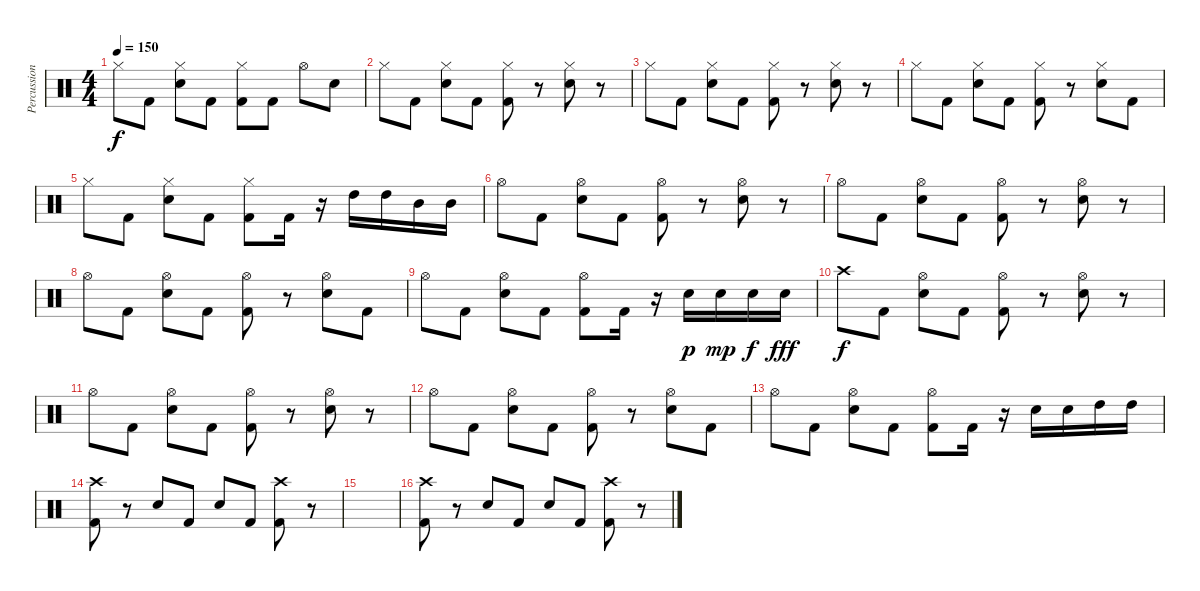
\track ("Percussion" "Percussion") {instrument percussion}
\staff {score}
\articulation defaults
\ts (4 4)
\tempo 150
\clef neutral
\ks c "Hi-Hat (closed)".8{dy f} "Kick (hit) 2".8
("Hi-Hat (closed)" "Electric Snare (hit)").8 "Kick (hit) 2".8 ("Hi-Hat (closed)" "Kick (hit) 2").8 "Kick (hit) 2".8 "Hi-Hat (open)".8 "Electric Snare (hit)".8 |
"Hi-Hat (closed)".8 "Kick (hit) 2".8 ("Hi-Hat (closed)" "Electric Snare (hit)").8 "Kick (hit) 2".8 ("Hi-Hat (closed)" "Kick (hit) 2").8 r.8 ("Hi-Hat (closed)" "Electric Snare (hit)").8 r.8 |
"Hi-Hat (closed)".8 "Kick (hit) 2".8 ("Hi-Hat (closed)" "Electric Snare (hit)").8 "Kick (hit) 2".8 ("Hi-Hat (closed)" "Kick (hit) 2").8 r.8 ("Hi-Hat (closed)" "Electric Snare (hit)").8 r.8 |
"Hi-Hat (closed)".8 "Kick (hit) 2".8 ("Hi-Hat (closed)" "Electric Snare (hit)").8 "Kick (hit) 2".8 ("Hi-Hat (closed)" "Kick (hit) 2").8 r.8 ("Hi-Hat (closed)" "Electric Snare (hit)").8 "Kick (hit) 2".8 |
"Hi-Hat (closed)".8 "Kick (hit) 2".8 ("Hi-Hat (closed)" "Electric Snare (hit)").8 "Kick (hit) 2".8 ("Hi-Hat (closed)" "Kick (hit) 2").8 "Kick (hit) 2".16 r.16 "High Tom (hit)".16 "High Tom (hit)".16 "Mid Tom (hit)".16 "Mid Tom (hit)".16 |
"Hi-Hat (open)".8 "Kick (hit) 2".8 ("Hi-Hat (open)" "Electric Snare (hit)").8 "Kick (hit) 2".8 ("Hi-Hat (open)" "Kick (hit) 2").8 r.8 ("Hi-Hat (open)" "Electric Snare (hit)").8 r.8 |
"Hi-Hat (open)".8 "Kick (hit) 2".8 ("Hi-Hat (open)" "Electric Snare (hit)").8 "Kick (hit) 2".8 ("Hi-Hat (open)" "Kick (hit) 2").8 r.8 ("Hi-Hat (open)" "Electric Snare (hit)").8 r.8 |
"Hi-Hat (open)".8 "Kick (hit) 2".8 ("Hi-Hat (open)" "Electric Snare (hit)").8 "Kick (hit) 2".8 ("Hi-Hat (open)" "Kick (hit) 2").8 r.8 ("Hi-Hat (open)" "Electric Snare (hit)").8 "Kick (hit) 2".8 |
"Hi-Hat (open)".8 "Kick (hit) 2".8 ("Hi-Hat (open)" "Electric Snare (hit)").8 "Kick (hit) 2".8 ("Hi-Hat (open)" "Kick (hit) 2").8 "Kick (hit) 2".16 r.16 "Electric Snare (hit)".16{dy p} "Electric Snare (hit)".16{dy mp} "Electric Snare (hit)".16{dy f} "Electric Snare (hit)".16{dy fff} |
"Crash high (hit)".8{dy f} "Kick (hit) 2".8 ("Hi-Hat (open)" "Electric Snare (hit)").8 "Kick (hit) 2".8 ("Hi-Hat (open)" "Kick (hit) 2").8 r.8 ("Hi-Hat (open)" "Electric Snare (hit)").8 r.8 |
"Hi-Hat (open)".8 "Kick (hit) 2".8 ("Hi-Hat (open)" "Electric Snare (hit)").8 "Kick (hit) 2".8 ("Hi-Hat (open)" "Kick (hit) 2").8 r.8 ("Hi-Hat (open)" "Electric Snare (hit)").8 r.8 |
"Hi-Hat (open)".8 "Kick (hit) 2".8 ("Hi-Hat (open)" "Electric Snare (hit)").8 "Kick (hit) 2".8 ("Hi-Hat (open)" "Kick (hit) 2").8 r.8 ("Hi-Hat (open)" "Electric Snare (hit)").8 "Kick (hit) 2".8 |
"Hi-Hat (open)".8 "Kick (hit) 2".8 ("Hi-Hat (open)" "Electric Snare (hit)").8 "Kick (hit) 2".8 ("Hi-Hat (open)" "Kick (hit) 2").8 "Kick (hit) 2".16 r.16 "Electric Snare (hit)".16 "Electric Snare (hit)".16 "High Tom (hit)".16 "High Tom (hit)".16 |
("Crash high (hit)" "Kick (hit) 2").8 r.8 "Electric Snare (hit)".8 "Kick (hit) 2".8 "Electric Snare (hit)".8 "Kick (hit) 2".8 ("Crash high (hit)" "Kick (hit) 2").8 r.8 |
|
("Crash high (hit)" "Kick (hit) 2").8 r.8 "Electric Snare (hit)".8 "Kick (hit) 2".8 "Electric Snare (hit)".8 "Kick (hit) 2".8 ("Crash high (hit)" "Kick (hit) 2").8 r.8
